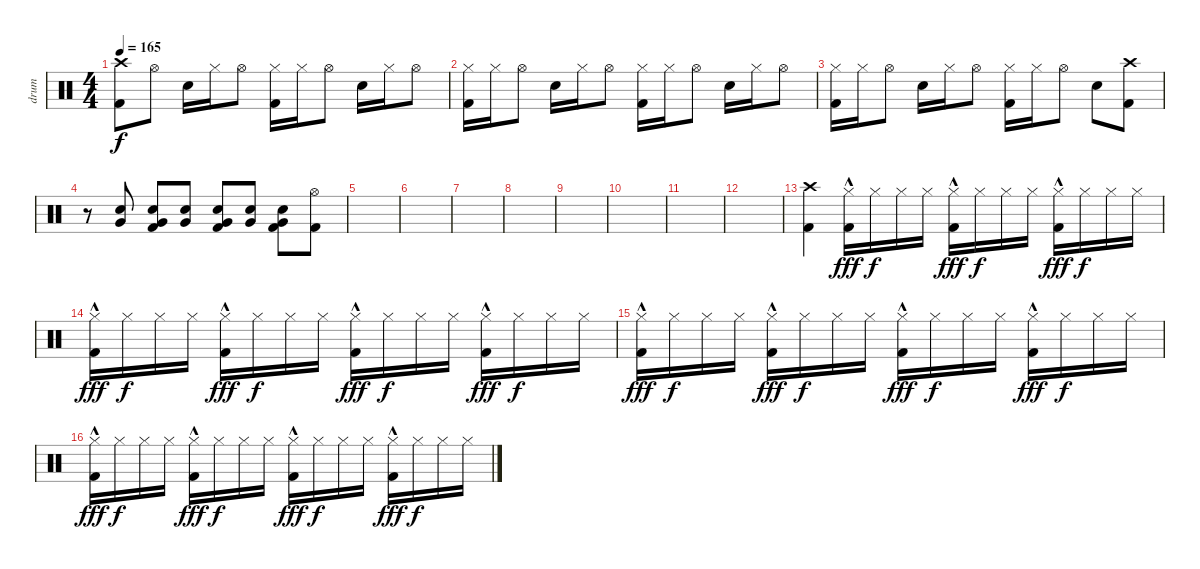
\track ("drum" "drum") {instrument percussion}
\staff {score}
\articulation defaults
\ts (4 4)
\tempo 165
\clef neutral
\ks c
("Crash high (hit)" "Kick (hit) 2").8{dy f} "Hi-Hat (open)".8 "Electric Snare (hit)".16 "Hi-Hat (closed)".16 "Hi-Hat (open)".8 ("Hi-Hat (closed)" "Kick (hit) 2").16 "Hi-Hat (closed)".16 "Hi-Hat (open)".8 "Electric Snare (hit)".16 "Hi-Hat (closed)".16 "Hi-Hat (open)".8 |
("Hi-Hat (closed)" "Kick (hit) 2").16 "Hi-Hat (closed)".16 "Hi-Hat (open)".8 "Electric Snare (hit)".16 "Hi-Hat (closed)".16 "Hi-Hat (open)".8 ("Hi-Hat (closed)" "Kick (hit) 2").16 "Hi-Hat (closed)".16 "Hi-Hat (open)".8 "Electric Snare (hit)".16 "Hi-Hat (closed)".16 "Hi-Hat (open)".8 |
("Hi-Hat (closed)" "Kick (hit) 2").16 "Hi-Hat (closed)".16 "Hi-Hat (open)".8 "Electric Snare (hit)".16 "Hi-Hat (closed)".16 "Hi-Hat (open)".8 ("Hi-Hat (closed)" "Kick (hit) 2").16 "Hi-Hat (closed)".16 "Hi-Hat (open)".8 "Electric Snare (hit)".8 ("Crash high (hit)" "Kick (hit) 2").8 |
r.8 ("Very Low Tom (hit)" "Electric Snare (hit)").8 ("Very Low Tom (hit)" "Electric Snare (hit)" "Kick (hit) 2").8 ("Very Low Tom (hit)" "Electric Snare (hit)").8 ("Very Low Tom (hit)" "Electric Snare (hit)" "Kick (hit) 2").8 ("Very Low Tom (hit)" "Electric Snare (hit)").8 ("Very Low Tom (hit)" "Electric Snare (hit)" "Kick (hit) 2").8 ("Hi-Hat (open)" "Kick (hit) 2").8 |
|
|
|
|
|
|
|
|
("Crash high (hit)" "Kick (hit) 2").4 ("Hi-Hat (closed)"{hac} "Kick (hit) 2").16{dy fff} "Hi-Hat (closed)".16{dy f} "Hi-Hat (closed)".16 "Hi-Hat (closed)".16 ("Hi-Hat (closed)"{hac} "Kick (hit) 2").16{dy fff} "Hi-Hat (closed)".16{dy f} "Hi-Hat (closed)".16 "Hi-Hat (closed)".16 ("Hi-Hat (closed)"{hac} "Kick (hit) 2").16{dy fff} "Hi-Hat (closed)".16{dy f} "Hi-Hat (closed)".16 "Hi-Hat (closed)".16 |
("Hi-Hat (closed)"{hac} "Kick (hit) 2").16{dy fff} "Hi-Hat (closed)".16{dy f} "Hi-Hat (closed)".16 "Hi-Hat (closed)".16 ("Hi-Hat (closed)"{hac} "Kick (hit) 2").16{dy fff} "Hi-Hat (closed)".16{dy f} "Hi-Hat (closed)".16 "Hi-Hat (closed)".16 ("Hi-Hat (closed)"{hac} "Kick (hit) 2").16{dy fff} "Hi-Hat (closed)".16{dy f} "Hi-Hat (closed)".16 "Hi-Hat (closed)".16 ("Hi-Hat (closed)"{hac} "Kick (hit) 2").16{dy fff} "Hi-Hat (closed)".16{dy f} "Hi-Hat (closed)".16 "Hi-Hat (closed)".16 |
("Hi-Hat (closed)"{hac} "Kick (hit) 2").16{dy fff} "Hi-Hat (closed)".16{dy f} "Hi-Hat (closed)".16 "Hi-Hat (closed)".16 ("Hi-Hat (closed)"{hac} "Kick (hit) 2").16{dy fff} "Hi-Hat (closed)".16{dy f} "Hi-Hat (closed)".16 "Hi-Hat (closed)".16 ("Hi-Hat (closed)"{hac} "Kick (hit) 2").16{dy fff} "Hi-Hat (closed)".16{dy f} "Hi-Hat (closed)".16 "Hi-Hat (closed)".16 ("Hi-Hat (closed)"{hac} "Kick (hit) 2").16{dy fff} "Hi-Hat (closed)".16{dy f} "Hi-Hat (closed)".16 "Hi-Hat (closed)".16 |
("Hi-Hat (closed)"{hac} "Kick (hit) 2").16{dy fff} "Hi-Hat (closed)".16{dy f} "Hi-Hat (closed)".16 "Hi-Hat (closed)".16 ("Hi-Hat (closed)"{hac} "Kick (hit) 2").16{dy fff} "Hi-Hat (closed)".16{dy f} "Hi-Hat (closed)".16 "Hi-Hat (closed)".16 ("Hi-Hat (closed)"{hac} "Kick (hit) 2").16{dy fff} "Hi-Hat (closed)".16{dy f} "Hi-Hat (closed)".16 "Hi-Hat (closed)".16 ("Hi-Hat (closed)"{hac} "Kick (hit) 2").16{dy fff} "Hi-Hat (closed)".16{dy f} "Hi-Hat (closed)".16 "Hi-Hat (closed)".16
